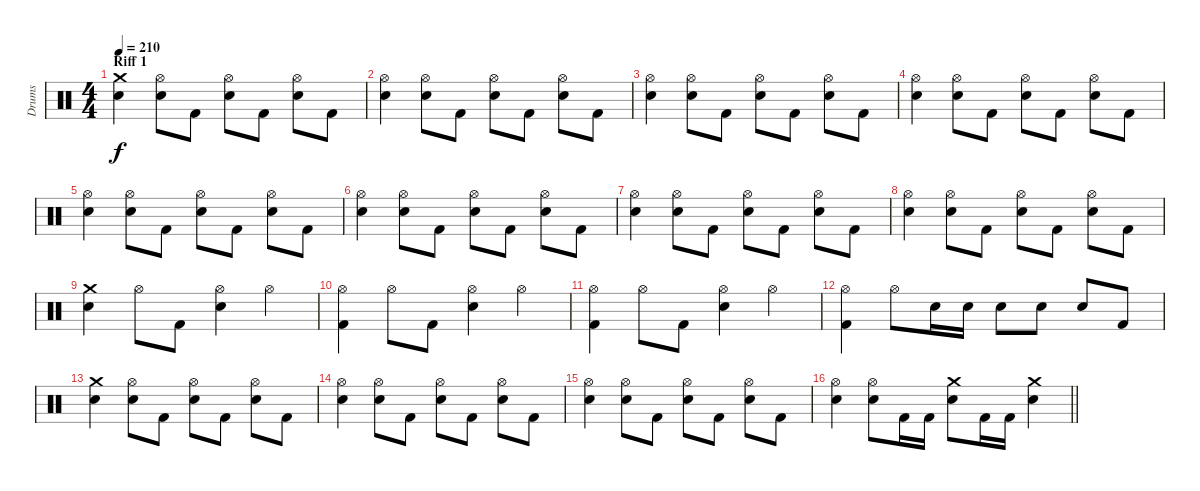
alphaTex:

\track ("Drums" "Drums") {instrument percussion}
\staff {score}
\articulation defaults
\ts (4 4)
\section ("" "Riff 1")
\tempo 210
\clef neutral
\ks c
("Electric Snare (hit)" "Crash medium (hit)").4{dy f} ("Hi-Hat (open)" "Electric Snare (hit)").8 "Kick (hit) 2".8 ("Hi-Hat (open)" "Electric Snare (hit)").8 "Kick (hit) 2".8 ("Electric Snare (hit)" "Hi-Hat (open)").8 "Kick (hit) 2".8 |
("Electric Snare (hit)" "Hi-Hat (open)").4 ("Hi-Hat (open)" "Electric Snare (hit)").8 "Kick (hit) 2".8 ("Hi-Hat (open)" "Electric Snare (hit)").8 "Kick (hit) 2".8 ("Electric Snare (hit)" "Hi-Hat (open)").8 "Kick (hit) 2".8 |
("Electric Snare (hit)" "Hi-Hat (open)").4 ("Hi-Hat (open)" "Electric Snare (hit)").8 "Kick (hit) 2".8 ("Hi-Hat (open)" "Electric Snare (hit)").8 "Kick (hit) 2".8 ("Electric Snare (hit)" "Hi-Hat (open)").8 "Kick (hit) 2".8 |
("Electric Snare (hit)" "Hi-Hat (open)").4 ("Hi-Hat (open)" "Electric Snare (hit)").8 "Kick (hit) 2".8 ("Hi-Hat (open)" "Electric Snare (hit)").8 "Kick (hit) 2".8 ("Electric Snare (hit)" "Hi-Hat (open)").8 "Kick (hit) 2".8 |
("Electric Snare (hit)" "Hi-Hat (open)").4 ("Hi-Hat (open)" "Electric Snare (hit)").8 "Kick (hit) 2".8 ("Hi-Hat (open)" "Electric Snare (hit)").8 "Kick (hit) 2".8 ("Electric Snare (hit)" "Hi-Hat (open)").8 "Kick (hit) 2".8 |
("Electric Snare (hit)" "Hi-Hat (open)").4 ("Hi-Hat (open)" "Electric Snare (hit)").8 "Kick (hit) 2".8 ("Hi-Hat (open)" "Electric Snare (hit)").8 "Kick (hit) 2".8 ("Electric Snare (hit)" "Hi-Hat (open)").8 "Kick (hit) 2".8 |
("Electric Snare (hit)" "Hi-Hat (open)").4 ("Hi-Hat (open)" "Electric Snare (hit)").8 "Kick (hit) 2".8 ("Hi-Hat (open)" "Electric Snare (hit)").8 "Kick (hit) 2".8 ("Electric Snare (hit)" "Hi-Hat (open)").8 "Kick (hit) 2".8 |
("Electric Snare (hit)" "Hi-Hat (open)").4 ("Hi-Hat (open)" "Electric Snare (hit)").8 "Kick (hit) 2".8 ("Hi-Hat (open)" "Electric Snare (hit)").8 "Kick (hit) 2".8 ("Electric Snare (hit)" "Hi-Hat (open)").8 "Kick (hit) 2".8 |
("Electric Snare (hit)" "Crash medium (hit)").4 "Hi-Hat (open)".8 "Kick (hit) 2".8 ("Hi-Hat (open)" "Electric Snare (hit)").4 "Hi-Hat (open)".4 |
("Kick (hit) 2" "Hi-Hat (open)").4 "Hi-Hat (open)".8 "Kick (hit) 2".8 ("Electric Snare (hit)" "Hi-Hat (open)").4 "Hi-Hat (open)".4 |
("Kick (hit) 2" "Hi-Hat (open)").4 "Hi-Hat (open)".8 "Kick (hit) 2".8 ("Electric Snare (hit)" "Hi-Hat (open)").4 "Hi-Hat (open)".4 |
("Kick (hit) 2" "Hi-Hat (open)").4 "Hi-Hat (open)".8 "Electric Snare (hit)".16 "Electric Snare (hit)".16 "Electric Snare (hit)".8 "Electric Snare (hit)".8 "Electric Snare (hit)".8 "Kick (hit) 2".8 |
("Electric Snare (hit)" "Crash medium (hit)").4 ("Hi-Hat (open)" "Electric Snare (hit)").8 "Kick (hit) 2".8 ("Hi-Hat (open)" "Electric Snare (hit)").8 "Kick (hit) 2".8 ("Electric Snare (hit)" "Hi-Hat (open)").8 "Kick (hit) 2".8 |
("Electric Snare (hit)" "Hi-Hat (open)").4 ("Hi-Hat (open)" "Electric Snare (hit)").8 "Kick (hit) 2".8 ("Hi-Hat (open)" "Electric Snare (hit)").8 "Kick (hit) 2".8 ("Electric Snare (hit)" "Hi-Hat (open)").8 "Kick (hit) 2".8 |
("Electric Snare (hit)" "Hi-Hat (open)").4 ("Hi-Hat (open)" "Electric Snare (hit)").8 "Kick (hit) 2".8 ("Hi-Hat (open)" "Electric Snare (hit)").8 "Kick (hit) 2".8 ("Electric Snare (hit)" "Hi-Hat (open)").8 "Kick (hit) 2".8 |
\barLineRight lightlight
("Electric Snare (hit)" "Hi-Hat (open)").4 ("Hi-Hat (open)" "Electric Snare (hit)").8 "Kick (hit) 2".16 "Kick (hit) 2".16 ("Electric Snare (hit)" "Crash medium (hit)").8 "Kick (hit) 2".16 "Kick (hit) 2".16 ("Electric Snare (hit)" "Crash medium (hit)").4
